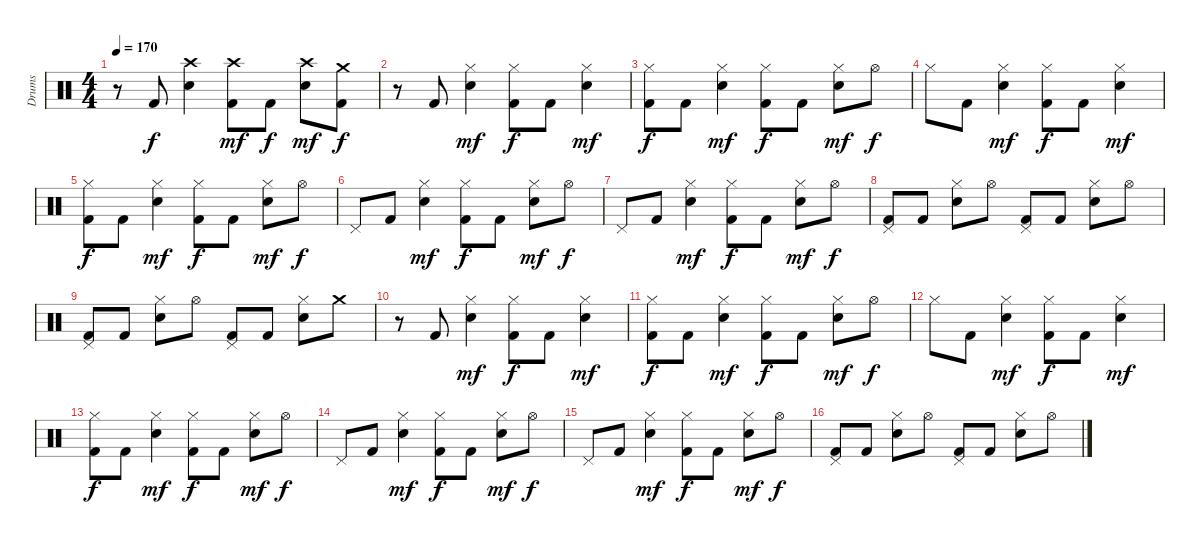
\track ("Drums" "Drums") {instrument percussion}
\staff {score}
\articulation defaults
\ts (4 4)
\tempo 170
\clef neutral
\ks c
r.8{dy f} "Kick (hit) 2".8 ("Crash high (hit)" "Electric Snare (hit)").4 ("Crash high (hit)" "Kick (hit) 2").8{dy mf} "Kick (hit) 2".8{dy f} ("Crash high (hit)" "Electric Snare (hit)").8{dy mf} ("Crash medium (hit)" "Kick (hit) 2").8{dy f} |
r.8 "Kick (hit) 2".8 ("Hi-Hat (closed)" "Electric Snare (hit)").4{dy mf} ("Hi-Hat (closed)" "Kick (hit) 2").8{dy f} "Kick (hit) 2".8 ("Hi-Hat (closed)" "Electric Snare (hit)").4{dy mf} |
("Hi-Hat (closed)" "Kick (hit) 2").8{dy f} "Kick (hit) 2".8 ("Hi-Hat (closed)" "Electric Snare (hit)").4{dy mf} ("Hi-Hat (closed)" "Kick (hit) 2").8{dy f} "Kick (hit) 2".8 ("Hi-Hat (closed)" "Electric Snare (hit)").8{dy mf} "Hi-Hat (open)".8{dy f} |
"Hi-Hat (closed)".8 "Kick (hit) 2".8 ("Hi-Hat (closed)" "Electric Snare (hit)").4{dy mf} ("Hi-Hat (closed)" "Kick (hit) 2").8{dy f} "Kick (hit) 2".8 ("Hi-Hat (closed)" "Electric Snare (hit)").4{dy mf} |
("Hi-Hat (closed)" "Kick (hit) 2").8{dy f} "Kick (hit) 2".8 ("Hi-Hat (closed)" "Electric Snare (hit)").4{dy mf} ("Hi-Hat (closed)" "Kick (hit) 2").8{dy f} "Kick (hit) 2".8 ("Hi-Hat (closed)" "Electric Snare (hit)").8{dy mf} "Hi-Hat (open)".8{dy f} |
"Pedal Hi-Hat (hit)".8 "Kick (hit) 2".8 ("Hi-Hat (closed)" "Electric Snare (hit)").4{dy mf} ("Hi-Hat (closed)" "Kick (hit) 2").8{dy f} "Kick (hit) 2".8 ("Hi-Hat (closed)" "Electric Snare (hit)").8{dy mf} "Hi-Hat (open)".8{dy f} |
"Pedal Hi-Hat (hit)".8 "Kick (hit) 2".8 ("Hi-Hat (closed)" "Electric Snare (hit)").4{dy mf} ("Hi-Hat (closed)" "Kick (hit) 2").8{dy f} "Kick (hit) 2".8 ("Hi-Hat (closed)" "Electric Snare (hit)").8{dy mf} "Hi-Hat (open)".8{dy f} |
("Pedal Hi-Hat (hit)" "Kick (hit) 2").8 "Kick (hit) 2".8 ("Hi-Hat (closed)" "Electric Snare (hit)").8 "Hi-Hat (open)".8 ("Pedal Hi-Hat (hit)" "Kick (hit) 2").8 "Kick (hit) 2".8 ("Hi-Hat (closed)" "Electric Snare (hit)").8 "Hi-Hat (open)".8 |
("Pedal Hi-Hat (hit)" "Kick (hit) 2").8 "Kick (hit) 2".8 ("Hi-Hat (closed)" "Electric Snare (hit)").8 "Hi-Hat (open)".8 ("Pedal Hi-Hat (hit)" "Kick (hit) 2").8 "Kick (hit) 2".8 ("Hi-Hat (closed)" "Electric Snare (hit)").8 "Crash medium (hit)".8 |
r.8 "Kick (hit) 2".8 ("Hi-Hat (closed)" "Electric Snare (hit)").4{dy mf} ("Hi-Hat (closed)" "Kick (hit) 2").8{dy f} "Kick (hit) 2".8 ("Hi-Hat (closed)" "Electric Snare (hit)").4{dy mf} |
("Hi-Hat (closed)" "Kick (hit) 2").8{dy f} "Kick (hit) 2".8 ("Hi-Hat (closed)" "Electric Snare (hit)").4{dy mf} ("Hi-Hat (closed)" "Kick (hit) 2").8{dy f} "Kick (hit) 2".8 ("Hi-Hat (closed)" "Electric Snare (hit)").8{dy mf} "Hi-Hat (open)".8{dy f} |
"Hi-Hat (closed)".8 "Kick (hit) 2".8 ("Hi-Hat (closed)" "Electric Snare (hit)").4{dy mf} ("Hi-Hat (closed)" "Kick (hit) 2").8{dy f} "Kick (hit) 2".8 ("Hi-Hat (closed)" "Electric Snare (hit)").4{dy mf} |
("Hi-Hat (closed)" "Kick (hit) 2").8{dy f} "Kick (hit) 2".8 ("Hi-Hat (closed)" "Electric Snare (hit)").4{dy mf} ("Hi-Hat (closed)" "Kick (hit) 2").8{dy f} "Kick (hit) 2".8 ("Hi-Hat (closed)" "Electric Snare (hit)").8{dy mf} "Hi-Hat (open)".8{dy f} |
"Pedal Hi-Hat (hit)".8 "Kick (hit) 2".8 ("Hi-Hat (closed)" "Electric Snare (hit)").4{dy mf} ("Hi-Hat (closed)" "Kick (hit) 2").8{dy f} "Kick (hit) 2".8 ("Hi-Hat (closed)" "Electric Snare (hit)").8{dy mf} "Hi-Hat (open)".8{dy f} |
"Pedal Hi-Hat (hit)".8 "Kick (hit) 2".8 ("Hi-Hat (closed)" "Electric Snare (hit)").4{dy mf} ("Hi-Hat (closed)" "Kick (hit) 2").8{dy f} "Kick (hit) 2".8 ("Hi-Hat (closed)" "Electric Snare (hit)").8{dy mf} "Hi-Hat (open)".8{dy f} |
("Pedal Hi-Hat (hit)" "Kick (hit) 2").8 "Kick (hit) 2".8 ("Hi-Hat (closed)" "Electric Snare (hit)").8 "Hi-Hat (open)".8 ("Pedal Hi-Hat (hit)" "Kick (hit) 2").8 "Kick (hit) 2".8 ("Hi-Hat (closed)" "Electric Snare (hit)").8 "Hi-Hat (open)".8
